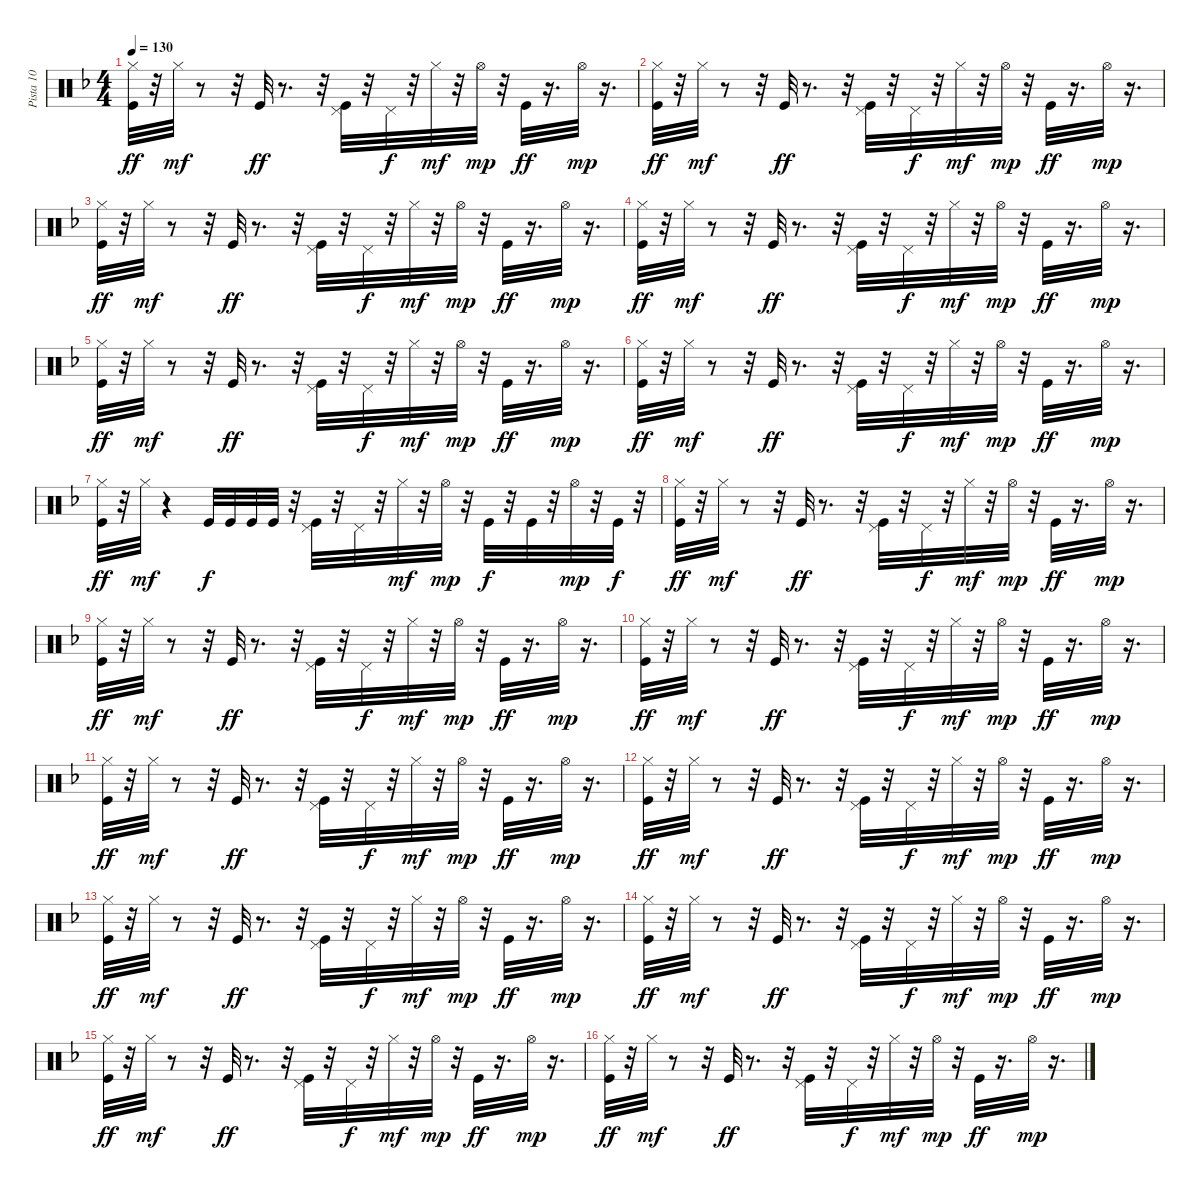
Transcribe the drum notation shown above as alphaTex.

\track ("Pista 10" "Pista 10") {instrument percussion}
\staff {score}
\articulation defaults
\ts (4 4)
\tempo 130
\clef neutral
\ks dminor
("Hi-Hat (closed)" "Kick (hit)").32{dy ff} r.32 "Hi-Hat (closed)".32{dy mf} r.8 r.32 "Kick (hit)".32{dy ff} r.8{d} r.32 ("Pedal Hi-Hat (hit)" "Kick (hit)").32 r.32 "Pedal Hi-Hat (hit)".32{dy f} r.32 "Hi-Hat (closed)".32{dy mf} r.32 "Hi-Hat (open)".32{dy mp} r.32 "Kick (hit)".32{dy ff} r.16{d} "Hi-Hat (open)".32{dy mp} r.16{d} |
("Hi-Hat (closed)" "Kick (hit)").32{dy ff} r.32 "Hi-Hat (closed)".32{dy mf} r.8 r.32 "Kick (hit)".32{dy ff} r.8{d} r.32 ("Pedal Hi-Hat (hit)" "Kick (hit)").32 r.32 "Pedal Hi-Hat (hit)".32{dy f} r.32 "Hi-Hat (closed)".32{dy mf} r.32 "Hi-Hat (open)".32{dy mp} r.32 "Kick (hit)".32{dy ff} r.16{d} "Hi-Hat (open)".32{dy mp} r.16{d} |
("Hi-Hat (closed)" "Kick (hit)").32{dy ff} r.32 "Hi-Hat (closed)".32{dy mf} r.8 r.32 "Kick (hit)".32{dy ff} r.8{d} r.32 ("Pedal Hi-Hat (hit)" "Kick (hit)").32 r.32 "Pedal Hi-Hat (hit)".32{dy f} r.32 "Hi-Hat (closed)".32{dy mf} r.32 "Hi-Hat (open)".32{dy mp} r.32 "Kick (hit)".32{dy ff} r.16{d} "Hi-Hat (open)".32{dy mp} r.16{d} |
("Hi-Hat (closed)" "Kick (hit)").32{dy ff} r.32 "Hi-Hat (closed)".32{dy mf} r.8 r.32 "Kick (hit)".32{dy ff} r.8{d} r.32 ("Pedal Hi-Hat (hit)" "Kick (hit)").32 r.32 "Pedal Hi-Hat (hit)".32{dy f} r.32 "Hi-Hat (closed)".32{dy mf} r.32 "Hi-Hat (open)".32{dy mp} r.32 "Kick (hit)".32{dy ff} r.16{d} "Hi-Hat (open)".32{dy mp} r.16{d} |
("Hi-Hat (closed)" "Kick (hit)").32{dy ff} r.32 "Hi-Hat (closed)".32{dy mf} r.8 r.32 "Kick (hit)".32{dy ff} r.8{d} r.32 ("Pedal Hi-Hat (hit)" "Kick (hit)").32 r.32 "Pedal Hi-Hat (hit)".32{dy f} r.32 "Hi-Hat (closed)".32{dy mf} r.32 "Hi-Hat (open)".32{dy mp} r.32 "Kick (hit)".32{dy ff} r.16{d} "Hi-Hat (open)".32{dy mp} r.16{d} |
("Hi-Hat (closed)" "Kick (hit)").32{dy ff} r.32 "Hi-Hat (closed)".32{dy mf} r.8 r.32 "Kick (hit)".32{dy ff} r.8{d} r.32 ("Pedal Hi-Hat (hit)" "Kick (hit)").32 r.32 "Pedal Hi-Hat (hit)".32{dy f} r.32 "Hi-Hat (closed)".32{dy mf} r.32 "Hi-Hat (open)".32{dy mp} r.32 "Kick (hit)".32{dy ff} r.16{d} "Hi-Hat (open)".32{dy mp} r.16{d} |
("Hi-Hat (closed)" "Kick (hit)").32{dy ff} r.32 "Hi-Hat (closed)".32{dy mf} r.4 "Kick (hit)".32{dy f} "Kick (hit)".32 "Kick (hit)".32 "Kick (hit)".32 r.32 ("Pedal Hi-Hat (hit)" "Kick (hit)").32 r.32 "Pedal Hi-Hat (hit)".32 r.32 "Hi-Hat (closed)".32{dy mf} r.32 "Hi-Hat (open)".32{dy mp} r.32 "Kick (hit)".32{dy f} r.32 "Kick (hit)".32 r.32 "Hi-Hat (open)".32{dy mp} r.32 "Kick (hit)".32{dy f} r.32 |
("Hi-Hat (closed)" "Kick (hit)").32{dy ff} r.32 "Hi-Hat (closed)".32{dy mf} r.8 r.32 "Kick (hit)".32{dy ff} r.8{d} r.32 ("Pedal Hi-Hat (hit)" "Kick (hit)").32 r.32 "Pedal Hi-Hat (hit)".32{dy f} r.32 "Hi-Hat (closed)".32{dy mf} r.32 "Hi-Hat (open)".32{dy mp} r.32 "Kick (hit)".32{dy ff} r.16{d} "Hi-Hat (open)".32{dy mp} r.16{d} |
("Hi-Hat (closed)" "Kick (hit)").32{dy ff} r.32 "Hi-Hat (closed)".32{dy mf} r.8 r.32 "Kick (hit)".32{dy ff} r.8{d} r.32 ("Pedal Hi-Hat (hit)" "Kick (hit)").32 r.32 "Pedal Hi-Hat (hit)".32{dy f} r.32 "Hi-Hat (closed)".32{dy mf} r.32 "Hi-Hat (open)".32{dy mp} r.32 "Kick (hit)".32{dy ff} r.16{d} "Hi-Hat (open)".32{dy mp} r.16{d} |
("Hi-Hat (closed)" "Kick (hit)").32{dy ff} r.32 "Hi-Hat (closed)".32{dy mf} r.8 r.32 "Kick (hit)".32{dy ff} r.8{d} r.32 ("Pedal Hi-Hat (hit)" "Kick (hit)").32 r.32 "Pedal Hi-Hat (hit)".32{dy f} r.32 "Hi-Hat (closed)".32{dy mf} r.32 "Hi-Hat (open)".32{dy mp} r.32 "Kick (hit)".32{dy ff} r.16{d} "Hi-Hat (open)".32{dy mp} r.16{d} |
("Hi-Hat (closed)" "Kick (hit)").32{dy ff} r.32 "Hi-Hat (closed)".32{dy mf} r.8 r.32 "Kick (hit)".32{dy ff} r.8{d} r.32 ("Pedal Hi-Hat (hit)" "Kick (hit)").32 r.32 "Pedal Hi-Hat (hit)".32{dy f} r.32 "Hi-Hat (closed)".32{dy mf} r.32 "Hi-Hat (open)".32{dy mp} r.32 "Kick (hit)".32{dy ff} r.16{d} "Hi-Hat (open)".32{dy mp} r.16{d} |
("Hi-Hat (closed)" "Kick (hit)").32{dy ff} r.32 "Hi-Hat (closed)".32{dy mf} r.8 r.32 "Kick (hit)".32{dy ff} r.8{d} r.32 ("Pedal Hi-Hat (hit)" "Kick (hit)").32 r.32 "Pedal Hi-Hat (hit)".32{dy f} r.32 "Hi-Hat (closed)".32{dy mf} r.32 "Hi-Hat (open)".32{dy mp} r.32 "Kick (hit)".32{dy ff} r.16{d} "Hi-Hat (open)".32{dy mp} r.16{d} |
("Hi-Hat (closed)" "Kick (hit)").32{dy ff} r.32 "Hi-Hat (closed)".32{dy mf} r.8 r.32 "Kick (hit)".32{dy ff} r.8{d} r.32 ("Pedal Hi-Hat (hit)" "Kick (hit)").32 r.32 "Pedal Hi-Hat (hit)".32{dy f} r.32 "Hi-Hat (closed)".32{dy mf} r.32 "Hi-Hat (open)".32{dy mp} r.32 "Kick (hit)".32{dy ff} r.16{d} "Hi-Hat (open)".32{dy mp} r.16{d} |
("Hi-Hat (closed)" "Kick (hit)").32{dy ff} r.32 "Hi-Hat (closed)".32{dy mf} r.8 r.32 "Kick (hit)".32{dy ff} r.8{d} r.32 ("Pedal Hi-Hat (hit)" "Kick (hit)").32 r.32 "Pedal Hi-Hat (hit)".32{dy f} r.32 "Hi-Hat (closed)".32{dy mf} r.32 "Hi-Hat (open)".32{dy mp} r.32 "Kick (hit)".32{dy ff} r.16{d} "Hi-Hat (open)".32{dy mp} r.16{d} |
("Hi-Hat (closed)" "Kick (hit)").32{dy ff} r.32 "Hi-Hat (closed)".32{dy mf} r.8 r.32 "Kick (hit)".32{dy ff} r.8{d} r.32 ("Pedal Hi-Hat (hit)" "Kick (hit)").32 r.32 "Pedal Hi-Hat (hit)".32{dy f} r.32 "Hi-Hat (closed)".32{dy mf} r.32 "Hi-Hat (open)".32{dy mp} r.32 "Kick (hit)".32{dy ff} r.16{d} "Hi-Hat (open)".32{dy mp} r.16{d} |
("Hi-Hat (closed)" "Kick (hit)").32{dy ff} r.32 "Hi-Hat (closed)".32{dy mf} r.8 r.32 "Kick (hit)".32{dy ff} r.8{d} r.32 ("Pedal Hi-Hat (hit)" "Kick (hit)").32 r.32 "Pedal Hi-Hat (hit)".32{dy f} r.32 "Hi-Hat (closed)".32{dy mf} r.32 "Hi-Hat (open)".32{dy mp} r.32 "Kick (hit)".32{dy ff} r.16{d} "Hi-Hat (open)".32{dy mp} r.16{d}
